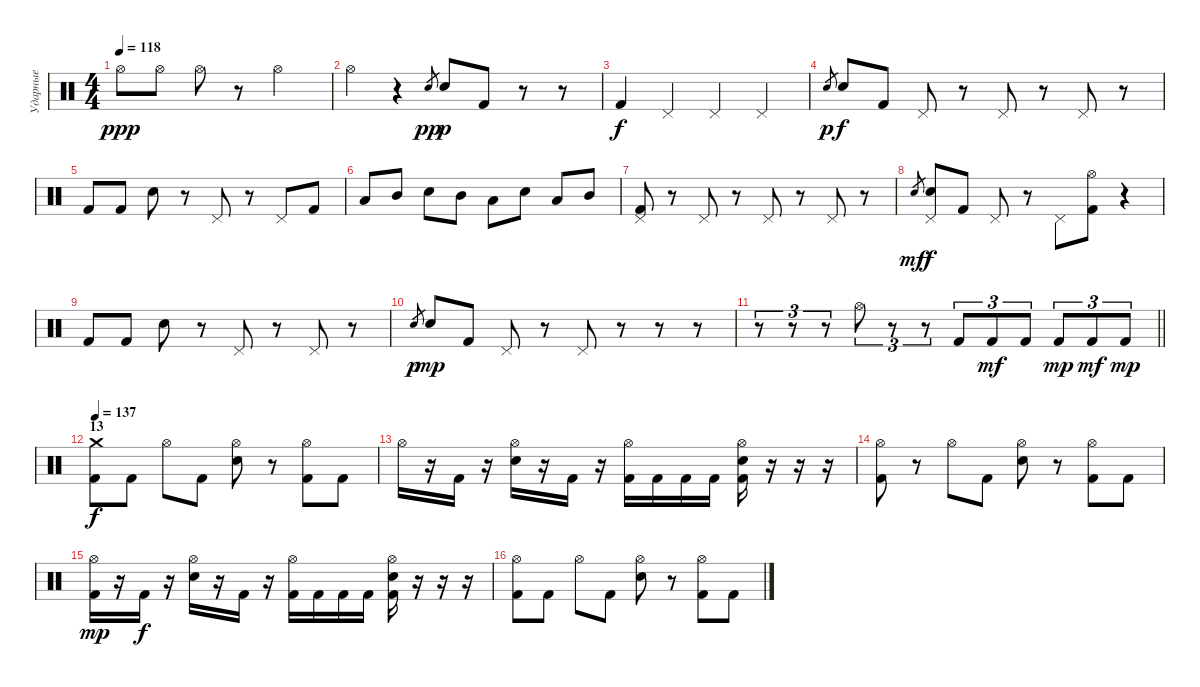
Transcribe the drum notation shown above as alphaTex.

\track ("Ударные" "Ударные") {instrument percussion}
\staff {score}
\articulation defaults
\ts (4 4)
\tempo 118
\clef neutral
\ks c "Hi-Hat (open)".8{dy ppp} "Hi-Hat (open)".8 "Hi-Hat (open)".8
r.8 "Hi-Hat (open)".2 |
"Hi-Hat (open)".4 r.4 "Snare (hit) 2".8{gr dy pp} "Snare (hit) 2".8{dy p} "Kick (hit) 2".8 r.8 r.8 |
"Kick (hit) 2".4{dy f} "Pedal Hi-Hat (hit)".4 "Pedal Hi-Hat (hit)".4 "Pedal Hi-Hat (hit)".4 |
"Snare (hit) 2".8{gr dy p} "Snare (hit) 2".8{dy f} "Kick (hit) 2".8 "Pedal Hi-Hat (hit)".8 r.8 "Pedal Hi-Hat (hit)".8 r.8 "Pedal Hi-Hat (hit)".8 r.8 |
"Kick (hit) 2".8 "Kick (hit) 2".8 "Snare (hit) 2".8 r.8 "Pedal Hi-Hat (hit)".8 r.8 "Pedal Hi-Hat (hit)".8 "Kick (hit) 2".8 |
"Low Tom (hit)".8 "Mid Tom (hit)".8 "Snare (hit) 2".8 "Mid Tom (hit)".8 "Low Tom (hit)".8 "Snare (hit) 2".8 "Low Tom (hit)".8 "Mid Tom (hit)".8 |
("Pedal Hi-Hat (hit)" "Kick (hit) 2").8 r.8 "Pedal Hi-Hat (hit)".8 r.8 "Pedal Hi-Hat (hit)".8 r.8 "Pedal Hi-Hat (hit)".8 r.8 |
"Snare (hit) 2".8{gr dy mf} ("Pedal Hi-Hat (hit)" "Snare (hit) 2").8{dy f} "Kick (hit) 2".8 "Pedal Hi-Hat (hit)".8 r.8 "Pedal Hi-Hat (hit)".8 ("Hi-Hat (open)" "Kick (hit) 2").8 r.4 |
"Kick (hit) 2".8 "Kick (hit) 2".8 "Snare (hit) 2".8 r.8 "Pedal Hi-Hat (hit)".8 r.8 "Pedal Hi-Hat (hit)".8 r.8 |
"Snare (hit) 2".8{gr dy p} "Snare (hit) 2".8{dy mp} "Kick (hit) 2".8 "Pedal Hi-Hat (hit)".8 r.8 "Pedal Hi-Hat (hit)".8 r.8 r.8 r.8 |
\barLineRight lightlight
r.8{tu (3 2)} r.8{tu (3 2)} r.8{tu (3 2)} "Hi-Hat (open)".8{tu (3 2)} r.8{tu (3 2)} r.8{tu (3 2)} "Kick (hit) 2".8{tu (3 2)} "Kick (hit) 2".8{tu (3 2) dy mf} "Kick (hit) 2".8{tu (3 2)} "Kick (hit) 2".8{tu (3 2) dy mp} "Kick (hit) 2".8{tu (3 2) dy mf} "Kick (hit) 2".8{tu (3 2) dy mp} |
\section ("" "13")
\tempo 137
("Crash medium (hit)" "Kick (hit) 2").8{dy f} "Kick (hit) 2".8 "Hi-Hat (open)".8 "Kick (hit) 2".8 ("Hi-Hat (open)" "Snare (hit) 2").8 r.8 ("Hi-Hat (open)" "Kick (hit) 2").8 "Kick (hit) 2".8 |
"Hi-Hat (open)".16 r.16 "Kick (hit) 2".16 r.16 ("Hi-Hat (open)" "Snare (hit) 2").16 r.16 "Kick (hit) 2".16 r.16 ("Hi-Hat (open)" "Kick (hit) 2").16 "Kick (hit) 2".16 "Kick (hit) 2".16 "Kick (hit) 2".16 ("Hi-Hat (open)" "Snare (hit) 2" "Kick (hit) 2").16 r.16 r.16 r.16 |
("Hi-Hat (open)" "Kick (hit) 2").8 r.8 "Hi-Hat (open)".8 "Kick (hit) 2".8 ("Hi-Hat (open)" "Snare (hit) 2").8 r.8 ("Hi-Hat (open)" "Kick (hit) 2").8 "Kick (hit) 2".8 |
("Hi-Hat (open)" "Kick (hit) 2").16{dy mp} r.16 "Kick (hit) 2".16{dy f} r.16 ("Hi-Hat (open)" "Snare (hit) 2").16 r.16 "Kick (hit) 2".16 r.16 ("Hi-Hat (open)" "Kick (hit) 2").16 "Kick (hit) 2".16 "Kick (hit) 2".16 "Kick (hit) 2".16 ("Hi-Hat (open)" "Snare (hit) 2" "Kick (hit) 2").16 r.16 r.16 r.16 |
("Hi-Hat (open)" "Kick (hit) 2").8 "Kick (hit) 2".8 "Hi-Hat (open)".8 "Kick (hit) 2".8 ("Hi-Hat (open)" "Snare (hit) 2").8 r.8 ("Hi-Hat (open)" "Kick (hit) 2").8 "Kick (hit) 2".8
